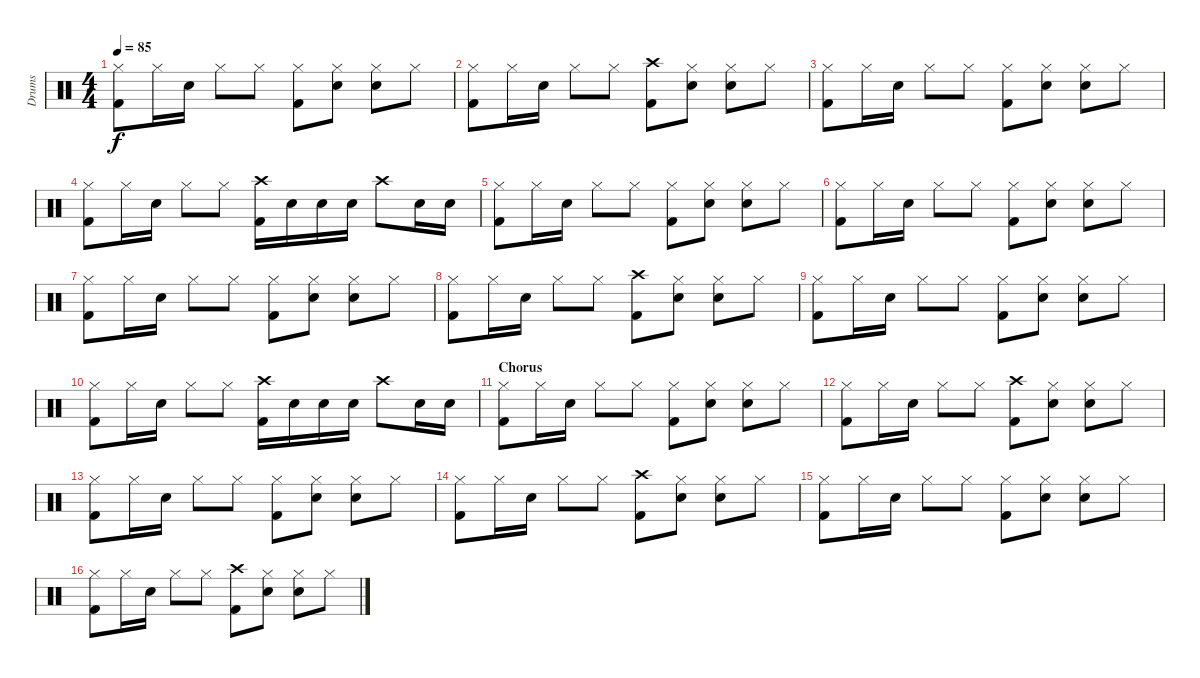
\track ("Drums" "Drums") {instrument percussion}
\staff {score}
\articulation defaults
\ts (4 4)
\tempo 85
\clef neutral
\ks c
("Hi-Hat (closed)" "Kick (hit) 2").8{dy f} "Hi-Hat (closed)".16 "Snare (hit) 2".16 "Hi-Hat (closed)".8 "Hi-Hat (closed)".8 ("Hi-Hat (closed)" "Kick (hit) 2").8 ("Hi-Hat (closed)" "Snare (hit) 2").8 ("Hi-Hat (closed)" "Snare (hit) 2").8 "Hi-Hat (closed)".8 |
("Hi-Hat (closed)" "Kick (hit) 2").8 "Hi-Hat (closed)".16 "Snare (hit) 2".16 "Hi-Hat (closed)".8 "Hi-Hat (closed)".8 ("Crash high (hit)" "Kick (hit) 2").8 ("Hi-Hat (closed)" "Snare (hit) 2").8 ("Hi-Hat (closed)" "Snare (hit) 2").8 "Hi-Hat (closed)".8 |
("Hi-Hat (closed)" "Kick (hit) 2").8 "Hi-Hat (closed)".16 "Snare (hit) 2".16 "Hi-Hat (closed)".8 "Hi-Hat (closed)".8 ("Hi-Hat (closed)" "Kick (hit) 2").8 ("Hi-Hat (closed)" "Snare (hit) 2").8 ("Hi-Hat (closed)" "Snare (hit) 2").8 "Hi-Hat (closed)".8 |
("Hi-Hat (closed)" "Kick (hit) 2").8 "Hi-Hat (closed)".16 "Snare (hit) 2".16 "Hi-Hat (closed)".8 "Hi-Hat (closed)".8 ("Crash high (hit)" "Kick (hit) 2").16 "Snare (hit) 2".16 "Snare (hit) 2".16 "Snare (hit) 2".16 "Crash high (hit)".8 "Snare (hit) 2".16 "Snare (hit) 2".16 |
("Hi-Hat (closed)" "Kick (hit) 2").8 "Hi-Hat (closed)".16 "Snare (hit) 2".16 "Hi-Hat (closed)".8 "Hi-Hat (closed)".8 ("Hi-Hat (closed)" "Kick (hit) 2").8 ("Hi-Hat (closed)" "Snare (hit) 2").8 ("Hi-Hat (closed)" "Snare (hit) 2").8 "Hi-Hat (closed)".8 |
("Hi-Hat (closed)" "Kick (hit) 2").8 "Hi-Hat (closed)".16 "Snare (hit) 2".16 "Hi-Hat (closed)".8 "Hi-Hat (closed)".8 ("Hi-Hat (closed)" "Kick (hit) 2").8 ("Hi-Hat (closed)" "Snare (hit) 2").8 ("Hi-Hat (closed)" "Snare (hit) 2").8 "Hi-Hat (closed)".8 |
("Hi-Hat (closed)" "Kick (hit) 2").8 "Hi-Hat (closed)".16 "Snare (hit) 2".16 "Hi-Hat (closed)".8 "Hi-Hat (closed)".8 ("Hi-Hat (closed)" "Kick (hit) 2").8 ("Hi-Hat (closed)" "Snare (hit) 2").8 ("Hi-Hat (closed)" "Snare (hit) 2").8 "Hi-Hat (closed)".8 |
("Hi-Hat (closed)" "Kick (hit) 2").8 "Hi-Hat (closed)".16 "Snare (hit) 2".16 "Hi-Hat (closed)".8 "Hi-Hat (closed)".8 ("Crash high (hit)" "Kick (hit) 2").8 ("Hi-Hat (closed)" "Snare (hit) 2").8 ("Hi-Hat (closed)" "Snare (hit) 2").8 "Hi-Hat (closed)".8 |
("Hi-Hat (closed)" "Kick (hit) 2").8 "Hi-Hat (closed)".16 "Snare (hit) 2".16 "Hi-Hat (closed)".8 "Hi-Hat (closed)".8 ("Hi-Hat (closed)" "Kick (hit) 2").8 ("Hi-Hat (closed)" "Snare (hit) 2").8 ("Hi-Hat (closed)" "Snare (hit) 2").8 "Hi-Hat (closed)".8 |
("Hi-Hat (closed)" "Kick (hit) 2").8 "Hi-Hat (closed)".16 "Snare (hit) 2".16 "Hi-Hat (closed)".8 "Hi-Hat (closed)".8 ("Crash high (hit)" "Kick (hit) 2").16 "Snare (hit) 2".16 "Snare (hit) 2".16 "Snare (hit) 2".16 "Crash high (hit)".8 "Snare (hit) 2".16 "Snare (hit) 2".16 |
\section ("" "Chorus")
("Hi-Hat (closed)" "Kick (hit) 2").8 "Hi-Hat (closed)".16 "Snare (hit) 2".16 "Hi-Hat (closed)".8 "Hi-Hat (closed)".8 ("Hi-Hat (closed)" "Kick (hit) 2").8 ("Hi-Hat (closed)" "Snare (hit) 2").8 ("Hi-Hat (closed)" "Snare (hit) 2").8 "Hi-Hat (closed)".8 |
("Hi-Hat (closed)" "Kick (hit) 2").8 "Hi-Hat (closed)".16 "Snare (hit) 2".16 "Hi-Hat (closed)".8 "Hi-Hat (closed)".8 ("Crash high (hit)" "Kick (hit) 2").8 ("Hi-Hat (closed)" "Snare (hit) 2").8 ("Hi-Hat (closed)" "Snare (hit) 2").8 "Hi-Hat (closed)".8 |
("Hi-Hat (closed)" "Kick (hit) 2").8 "Hi-Hat (closed)".16 "Snare (hit) 2".16 "Hi-Hat (closed)".8 "Hi-Hat (closed)".8 ("Hi-Hat (closed)" "Kick (hit) 2").8 ("Hi-Hat (closed)" "Snare (hit) 2").8 ("Hi-Hat (closed)" "Snare (hit) 2").8 "Hi-Hat (closed)".8 |
("Hi-Hat (closed)" "Kick (hit) 2").8 "Hi-Hat (closed)".16 "Snare (hit) 2".16 "Hi-Hat (closed)".8 "Hi-Hat (closed)".8 ("Crash high (hit)" "Kick (hit) 2").8 ("Hi-Hat (closed)" "Snare (hit) 2").8 ("Hi-Hat (closed)" "Snare (hit) 2").8 "Hi-Hat (closed)".8 |
("Hi-Hat (closed)" "Kick (hit) 2").8 "Hi-Hat (closed)".16 "Snare (hit) 2".16 "Hi-Hat (closed)".8 "Hi-Hat (closed)".8 ("Hi-Hat (closed)" "Kick (hit) 2").8 ("Hi-Hat (closed)" "Snare (hit) 2").8 ("Hi-Hat (closed)" "Snare (hit) 2").8 "Hi-Hat (closed)".8 |
("Hi-Hat (closed)" "Kick (hit) 2").8 "Hi-Hat (closed)".16 "Snare (hit) 2".16 "Hi-Hat (closed)".8 "Hi-Hat (closed)".8 ("Crash high (hit)" "Kick (hit) 2").8 ("Hi-Hat (closed)" "Snare (hit) 2").8 ("Hi-Hat (closed)" "Snare (hit) 2").8 "Hi-Hat (closed)".8
